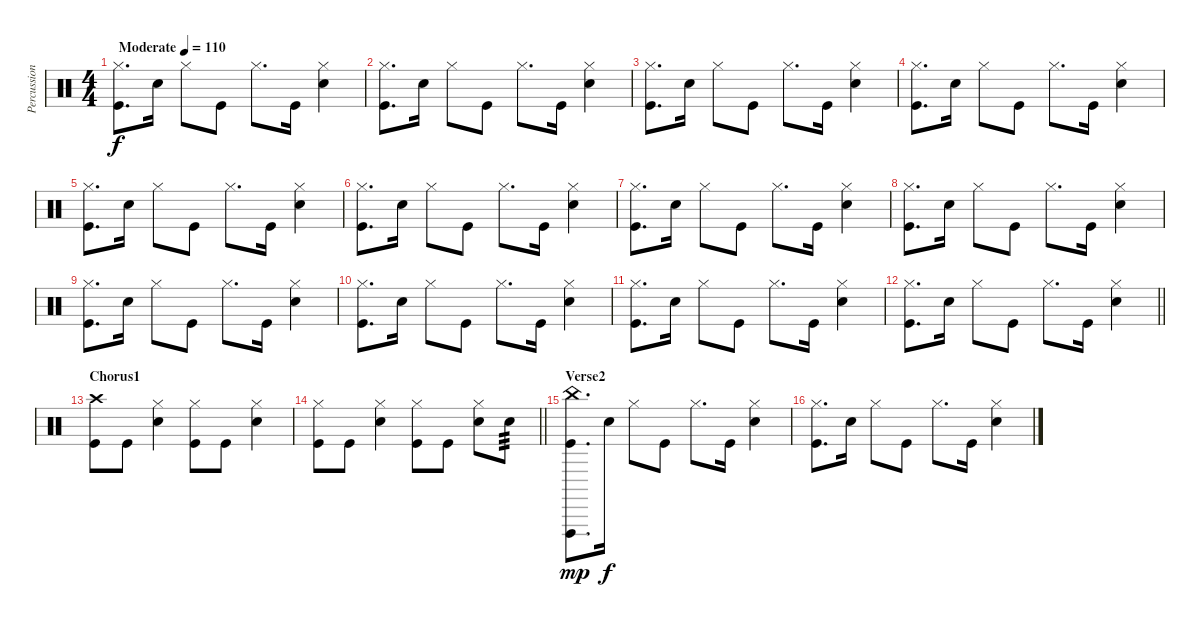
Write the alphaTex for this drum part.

\track ("Percussion" "Percussion") {instrument percussion}
\staff {score}
\articulation defaults
\ts (4 4)
\tempo (110 "Moderate")
\clef neutral
\ks c
("Hi-Hat (closed)" "Kick (hit)").8{d dy f} "Snare (hit) 2".16 "Hi-Hat (closed)".8 "Kick (hit)".8 "Hi-Hat (closed)".8{d} "Kick (hit)".16 ("Hi-Hat (closed)" "Snare (hit) 2").4 |
("Hi-Hat (closed)" "Kick (hit)").8{d} "Snare (hit) 2".16 "Hi-Hat (closed)".8 "Kick (hit)".8 "Hi-Hat (closed)".8{d} "Kick (hit)".16 ("Hi-Hat (closed)" "Snare (hit) 2").4 |
("Hi-Hat (closed)" "Kick (hit)").8{d} "Snare (hit) 2".16 "Hi-Hat (closed)".8 "Kick (hit)".8 "Hi-Hat (closed)".8{d} "Kick (hit)".16 ("Hi-Hat (closed)" "Snare (hit) 2").4 |
("Hi-Hat (closed)" "Kick (hit)").8{d} "Snare (hit) 2".16 "Hi-Hat (closed)".8 "Kick (hit)".8 "Hi-Hat (closed)".8{d} "Kick (hit)".16 ("Hi-Hat (closed)" "Snare (hit) 2").4 |
("Hi-Hat (closed)" "Kick (hit)").8{d} "Snare (hit) 2".16 "Hi-Hat (closed)".8 "Kick (hit)".8 "Hi-Hat (closed)".8{d} "Kick (hit)".16 ("Hi-Hat (closed)" "Snare (hit) 2").4 |
("Hi-Hat (closed)" "Kick (hit)").8{d} "Snare (hit) 2".16 "Hi-Hat (closed)".8 "Kick (hit)".8 "Hi-Hat (closed)".8{d} "Kick (hit)".16 ("Hi-Hat (closed)" "Snare (hit) 2").4 |
("Hi-Hat (closed)" "Kick (hit)").8{d} "Snare (hit) 2".16 "Hi-Hat (closed)".8 "Kick (hit)".8 "Hi-Hat (closed)".8{d} "Kick (hit)".16 ("Hi-Hat (closed)" "Snare (hit) 2").4 |
("Hi-Hat (closed)" "Kick (hit)").8{d} "Snare (hit) 2".16 "Hi-Hat (closed)".8 "Kick (hit)".8 "Hi-Hat (closed)".8{d} "Kick (hit)".16 ("Hi-Hat (closed)" "Snare (hit) 2").4 |
("Hi-Hat (closed)" "Kick (hit)").8{d} "Snare (hit) 2".16 "Hi-Hat (closed)".8 "Kick (hit)".8 "Hi-Hat (closed)".8{d} "Kick (hit)".16 ("Hi-Hat (closed)" "Snare (hit) 2").4 |
("Hi-Hat (closed)" "Kick (hit)").8{d} "Snare (hit) 2".16 "Hi-Hat (closed)".8 "Kick (hit)".8 "Hi-Hat (closed)".8{d} "Kick (hit)".16 ("Hi-Hat (closed)" "Snare (hit) 2").4 |
("Hi-Hat (closed)" "Kick (hit)").8{d} "Snare (hit) 2".16 "Hi-Hat (closed)".8 "Kick (hit)".8 "Hi-Hat (closed)".8{d} "Kick (hit)".16 ("Hi-Hat (closed)" "Snare (hit) 2").4 |
\barLineRight lightlight
("Hi-Hat (closed)" "Kick (hit)").8{d} "Snare (hit) 2".16 "Hi-Hat (closed)".8 "Kick (hit)".8 "Hi-Hat (closed)".8{d} "Kick (hit)".16 ("Hi-Hat (closed)" "Snare (hit) 2").4 |
\section ("" "Chorus1")
("Crash high (hit)" "Kick (hit)").8 "Kick (hit)".8 ("Hi-Hat (closed)" "Snare (hit) 2").4 ("Hi-Hat (closed)" "Kick (hit)").8 "Kick (hit)".8 ("Hi-Hat (closed)" "Snare (hit) 2").4 |
\barLineRight lightlight
("Hi-Hat (closed)" "Kick (hit)").8 "Kick (hit)".8 ("Hi-Hat (closed)" "Snare (hit) 2").4 ("Hi-Hat (closed)" "Kick (hit)").8 "Kick (hit)".8 ("Hi-Hat (closed)" "Snare (hit) 2").8 "Snare (hit) 2".8{tp 3} |
\section ("" "Verse2")
("Vibraslap (hit)" "Kick (hit)" "China (hit)").8{d dy mp} "Snare (hit) 2".16{dy f} "Hi-Hat (closed)".8 "Kick (hit)".8 "Hi-Hat (closed)".8{d} "Kick (hit)".16 ("Hi-Hat (closed)" "Snare (hit) 2").4 |
("Hi-Hat (closed)" "Kick (hit)").8{d} "Snare (hit) 2".16 "Hi-Hat (closed)".8 "Kick (hit)".8 "Hi-Hat (closed)".8{d} "Kick (hit)".16 ("Hi-Hat (closed)" "Snare (hit) 2").4
